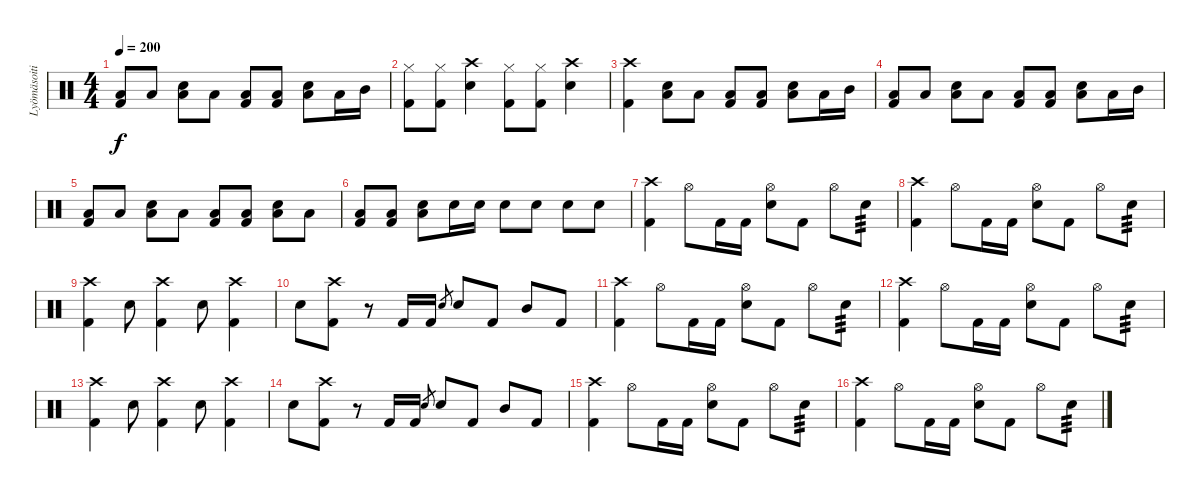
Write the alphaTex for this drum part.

\track ("Lyömäsoitin" "Lyömäsoiti") {instrument percussion}
\staff {score}
\articulation defaults
\ts (4 4)
\tempo 200
\clef neutral
\ks c
("Low Tom (hit)" "Kick (hit) 2").8{dy f} "Low Tom (hit)".8 ("Snare (hit) 2" "Low Tom (hit)").8 "Low Tom (hit)".8 ("Low Tom (hit)" "Kick (hit) 2").8 ("Low Tom (hit)" "Kick (hit) 2").8 ("Low Tom (hit)" "Snare (hit) 2").8 "Low Tom (hit)".16 "Mid Tom (hit)".16 |
("Hi-Hat (closed)" "Kick (hit) 2").8 ("Hi-Hat (closed)" "Kick (hit) 2").8 ("Crash high (hit)" "Snare (hit) 2").4 ("Hi-Hat (closed)" "Kick (hit) 2").8 ("Hi-Hat (closed)" "Kick (hit) 2").8 ("Crash high (hit)" "Snare (hit) 2").4 |
("Crash high (hit)" "Kick (hit) 2").4 ("Snare (hit) 2" "Low Tom (hit)").8 "Low Tom (hit)".8 ("Kick (hit) 2" "Low Tom (hit)").8 ("Kick (hit) 2" "Low Tom (hit)").8 ("Snare (hit) 2" "Low Tom (hit)").8 "Low Tom (hit)".16 "Mid Tom (hit)".16 |
("Low Tom (hit)" "Kick (hit) 2").8 "Low Tom (hit)".8 ("Low Tom (hit)" "Snare (hit) 2").8 "Low Tom (hit)".8 ("Low Tom (hit)" "Kick (hit) 2").8 ("Low Tom (hit)" "Kick (hit) 2").8 ("Low Tom (hit)" "Snare (hit) 2").8 "Low Tom (hit)".16 "Mid Tom (hit)".16 |
("Low Tom (hit)" "Kick (hit) 2").8 "Low Tom (hit)".8 ("Low Tom (hit)" "Snare (hit) 2").8 "Low Tom (hit)".8 ("Low Tom (hit)" "Kick (hit) 2").8 ("Low Tom (hit)" "Kick (hit) 2").8 ("Low Tom (hit)" "Snare (hit) 2").8 "Low Tom (hit)".8 |
("Low Tom (hit)" "Kick (hit) 2").8 ("Low Tom (hit)" "Kick (hit) 2").8 ("Low Tom (hit)" "Snare (hit) 2").8 "Snare (hit) 2".16 "Snare (hit) 2".16 "Snare (hit) 2".8 "Snare (hit) 2".8 "Snare (hit) 2".8 "Snare (hit) 2".8 |
("Crash high (hit)" "Kick (hit) 2").4 "Hi-Hat (open)".8 "Kick (hit) 2".16 "Kick (hit) 2".16 ("Hi-Hat (open)" "Snare (hit) 2").8 "Kick (hit) 2".8 "Hi-Hat (open)".8 "Snare (hit) 2".8{tp 3} |
("Crash high (hit)" "Kick (hit) 2").4 "Hi-Hat (open)".8 "Kick (hit) 2".16 "Kick (hit) 2".16 ("Hi-Hat (open)" "Snare (hit) 2").8 "Kick (hit) 2".8 "Hi-Hat (open)".8 "Snare (hit) 2".8{tp 3} |
("Crash high (hit)" "Kick (hit) 2").4 "Snare (hit) 2".8 ("Crash high (hit)" "Kick (hit) 2").4 "Snare (hit) 2".8 ("Crash high (hit)" "Kick (hit) 2").4 |
"Snare (hit) 2".8 ("Crash high (hit)" "Kick (hit) 2").8 r.8 "Kick (hit) 2".16 "Kick (hit) 2".16 "Snare (hit) 2".8{gr} "Snare (hit) 2".8 "Kick (hit) 2".8 "Mid Tom (hit)".8 "Kick (hit) 2".8 |
("Crash high (hit)" "Kick (hit) 2").4 "Hi-Hat (open)".8 "Kick (hit) 2".16 "Kick (hit) 2".16 ("Hi-Hat (open)" "Snare (hit) 2").8 "Kick (hit) 2".8 "Hi-Hat (open)".8 "Snare (hit) 2".8{tp 3} |
("Crash high (hit)" "Kick (hit) 2").4 "Hi-Hat (open)".8 "Kick (hit) 2".16 "Kick (hit) 2".16 ("Hi-Hat (open)" "Snare (hit) 2").8 "Kick (hit) 2".8 "Hi-Hat (open)".8 "Snare (hit) 2".8{tp 3} |
("Crash high (hit)" "Kick (hit) 2").4 "Snare (hit) 2".8 ("Crash high (hit)" "Kick (hit) 2").4 "Snare (hit) 2".8 ("Crash high (hit)" "Kick (hit) 2").4 |
"Snare (hit) 2".8 ("Crash high (hit)" "Kick (hit) 2").8 r.8 "Kick (hit) 2".16 "Kick (hit) 2".16 "Snare (hit) 2".8{gr} "Snare (hit) 2".8 "Kick (hit) 2".8 "Mid Tom (hit)".8 "Kick (hit) 2".8 |
("Crash high (hit)" "Kick (hit) 2").4 "Hi-Hat (open)".8 "Kick (hit) 2".16 "Kick (hit) 2".16 ("Hi-Hat (open)" "Snare (hit) 2").8 "Kick (hit) 2".8 "Hi-Hat (open)".8 "Snare (hit) 2".8{tp 3} |
("Crash high (hit)" "Kick (hit) 2").4 "Hi-Hat (open)".8 "Kick (hit) 2".16 "Kick (hit) 2".16 ("Hi-Hat (open)" "Snare (hit) 2").8 "Kick (hit) 2".8 "Hi-Hat (open)".8 "Snare (hit) 2".8{tp 3}
